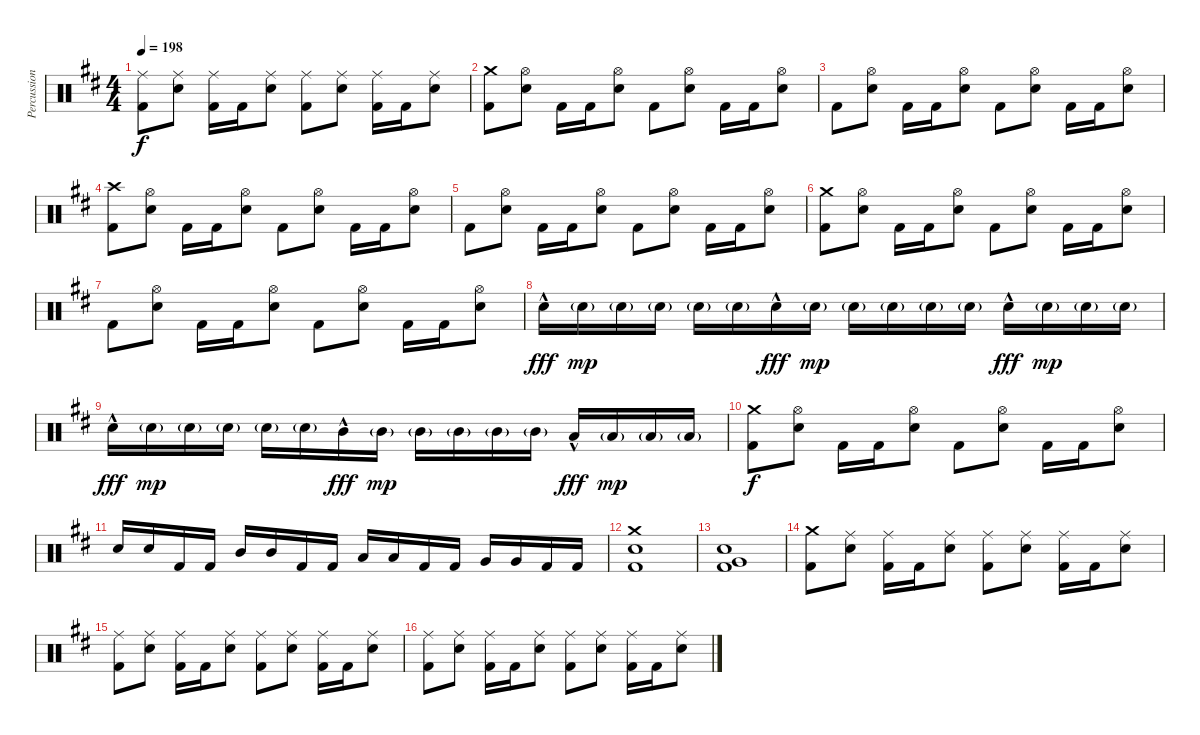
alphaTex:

\track ("Percussion" "Percussion") {instrument percussion}
\staff {score}
\articulation defaults
\ts (4 4)
\tempo 198
\clef neutral
\ks bminor
("Ride (middle)" "Kick (hit) 2").8{dy f} ("Ride (middle)" "Snare (hit) 2").8 ("Ride (middle)" "Kick (hit) 2").16 "Kick (hit) 2".16 ("Ride (middle)" "Snare (hit) 2").8 ("Ride (middle)" "Kick (hit) 2").8 ("Ride (middle)" "Snare (hit) 2").8 ("Ride (middle)" "Kick (hit) 2").16 "Kick (hit) 2".16 ("Ride (middle)" "Snare (hit) 2").8 |
("Crash medium (hit)" "Kick (hit) 2").8 ("Hi-Hat (open)" "Snare (hit) 2").8 "Kick (hit) 2".16 "Kick (hit) 2".16 ("Hi-Hat (open)" "Snare (hit) 2").8 "Kick (hit) 2".8 ("Hi-Hat (open)" "Snare (hit) 2").8 "Kick (hit) 2".16 "Kick (hit) 2".16 ("Hi-Hat (open)" "Snare (hit) 2").8 |
"Kick (hit) 2".8 ("Hi-Hat (open)" "Snare (hit) 2").8 "Kick (hit) 2".16 "Kick (hit) 2".16 ("Hi-Hat (open)" "Snare (hit) 2").8 "Kick (hit) 2".8 ("Hi-Hat (open)" "Snare (hit) 2").8 "Kick (hit) 2".16 "Kick (hit) 2".16 ("Hi-Hat (open)" "Snare (hit) 2").8 |
("Crash high (hit)" "Kick (hit) 2").8 ("Hi-Hat (open)" "Snare (hit) 2").8 "Kick (hit) 2".16 "Kick (hit) 2".16 ("Hi-Hat (open)" "Snare (hit) 2").8 "Kick (hit) 2".8 ("Hi-Hat (open)" "Snare (hit) 2").8 "Kick (hit) 2".16 "Kick (hit) 2".16 ("Hi-Hat (open)" "Snare (hit) 2").8 |
"Kick (hit) 2".8 ("Hi-Hat (open)" "Snare (hit) 2").8 "Kick (hit) 2".16 "Kick (hit) 2".16 ("Hi-Hat (open)" "Snare (hit) 2").8 "Kick (hit) 2".8 ("Hi-Hat (open)" "Snare (hit) 2").8 "Kick (hit) 2".16 "Kick (hit) 2".16 ("Hi-Hat (open)" "Snare (hit) 2").8 |
("Crash medium (hit)" "Kick (hit) 2").8 ("Hi-Hat (open)" "Snare (hit) 2").8 "Kick (hit) 2".16 "Kick (hit) 2".16 ("Hi-Hat (open)" "Snare (hit) 2").8 "Kick (hit) 2".8 ("Hi-Hat (open)" "Snare (hit) 2").8 "Kick (hit) 2".16 "Kick (hit) 2".16 ("Hi-Hat (open)" "Snare (hit) 2").8 |
"Kick (hit) 2".8 ("Hi-Hat (open)" "Snare (hit) 2").8 "Kick (hit) 2".16 "Kick (hit) 2".16 ("Hi-Hat (open)" "Snare (hit) 2").8 "Kick (hit) 2".8 ("Hi-Hat (open)" "Snare (hit) 2").8 "Kick (hit) 2".16 "Kick (hit) 2".16 ("Hi-Hat (open)" "Snare (hit) 2").8 |
"Snare (hit) 2"{hac}.16{dy fff} "Snare (hit) 2"{g}.16{dy mp} "Snare (hit) 2"{g}.16 "Snare (hit) 2"{g}.16 "Snare (hit) 2"{g}.16 "Snare (hit) 2"{g}.16 "Snare (hit) 2"{hac}.16{dy fff} "Snare (hit) 2"{g}.16{dy mp} "Snare (hit) 2"{g}.16 "Snare (hit) 2"{g}.16 "Snare (hit) 2"{g}.16 "Snare (hit) 2"{g}.16 "Snare (hit) 2"{hac}.16{dy fff} "Snare (hit) 2"{g}.16{dy mp} "Snare (hit) 2"{g}.16 "Snare (hit) 2"{g}.16 |
"Snare (hit) 2"{hac}.16{dy fff} "Snare (hit) 2"{g}.16{dy mp} "Snare (hit) 2"{g}.16 "Snare (hit) 2"{g}.16 "Snare (hit) 2"{g}.16 "Snare (hit) 2"{g}.16 "Mid Tom (hit)"{hac}.16{dy fff} "Mid Tom (hit)"{g}.16{dy mp} "Mid Tom (hit)"{g}.16 "Mid Tom (hit)"{g}.16 "Mid Tom (hit)"{g}.16 "Mid Tom (hit)"{g}.16 "Low Tom (hit)"{hac}.16{dy fff} "Low Tom (hit)"{g}.16{dy mp} "Low Tom (hit)"{g}.16 "Low Tom (hit)"{g}.16 |
("Crash medium (hit)" "Kick (hit) 2").8{dy f} ("Hi-Hat (open)" "Snare (hit) 2").8 "Kick (hit) 2".16 "Kick (hit) 2".16 ("Hi-Hat (open)" "Snare (hit) 2").8 "Kick (hit) 2".8 ("Hi-Hat (open)" "Snare (hit) 2").8 "Kick (hit) 2".16 "Kick (hit) 2".16 ("Hi-Hat (open)" "Snare (hit) 2").8 |
"Snare (hit) 2".16 "Snare (hit) 2".16 "Kick (hit) 2".16 "Kick (hit) 2".16 "Mid Tom (hit)".16 "Mid Tom (hit)".16 "Kick (hit) 2".16 "Kick (hit) 2".16 "Low Tom (hit)".16 "Low Tom (hit)".16 "Kick (hit) 2".16 "Kick (hit) 2".16 "Very Low Tom (hit)".16 "Very Low Tom (hit)".16 "Kick (hit) 2".16 "Kick (hit) 2".16 |
("Crash medium (hit)" "Snare (hit) 2" "Kick (hit) 2").1 |
("Snare (hit) 2" "Very Low Tom (hit)" "Kick (hit) 2").1 |
("Crash medium (hit)" "Kick (hit) 2").8 ("Ride (middle)" "Snare (hit) 2").8 ("Ride (middle)" "Kick (hit) 2").16 "Kick (hit) 2".16 ("Ride (middle)" "Snare (hit) 2").8 ("Ride (middle)" "Kick (hit) 2").8 ("Ride (middle)" "Snare (hit) 2").8 ("Ride (middle)" "Kick (hit) 2").16 "Kick (hit) 2".16 ("Ride (middle)" "Snare (hit) 2").8 |
("Ride (middle)" "Kick (hit) 2").8 ("Ride (middle)" "Snare (hit) 2").8 ("Ride (middle)" "Kick (hit) 2").16 "Kick (hit) 2".16 ("Ride (middle)" "Snare (hit) 2").8 ("Ride (middle)" "Kick (hit) 2").8 ("Ride (middle)" "Snare (hit) 2").8 ("Ride (middle)" "Kick (hit) 2").16 "Kick (hit) 2".16 ("Ride (middle)" "Snare (hit) 2").8 |
("Ride (middle)" "Kick (hit) 2").8 ("Ride (middle)" "Snare (hit) 2").8 ("Ride (middle)" "Kick (hit) 2").16 "Kick (hit) 2".16 ("Ride (middle)" "Snare (hit) 2").8 ("Ride (middle)" "Kick (hit) 2").8 ("Ride (middle)" "Snare (hit) 2").8 ("Ride (middle)" "Kick (hit) 2").16 "Kick (hit) 2".16 ("Ride (middle)" "Snare (hit) 2").8
